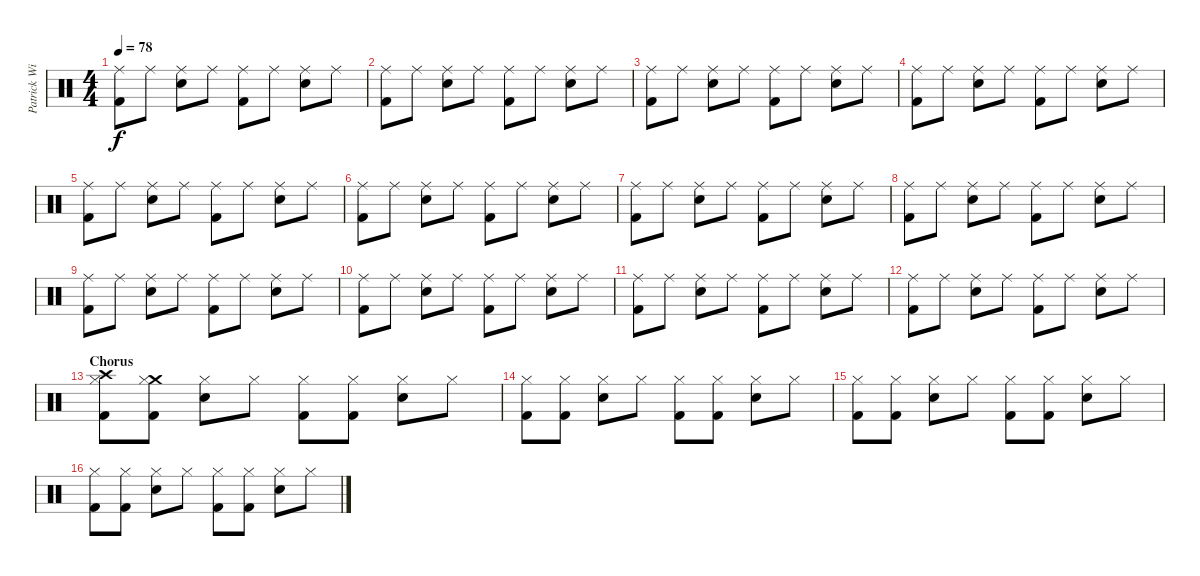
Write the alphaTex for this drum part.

\track ("Patrick Wilson" "Patrick Wi") {instrument percussion}
\staff {score}
\articulation defaults
\ts (4 4)
\tempo 78
\clef neutral
\ks c
("Ride (middle)" "Kick (hit) 2").8{dy f} "Ride (middle)".8 ("Ride (middle)" "Snare (hit) 2").8 "Ride (middle)".8 ("Ride (middle)" "Kick (hit) 2").8 "Ride (middle)".8 ("Ride (middle)" "Snare (hit) 2").8 "Ride (middle)".8 |
("Ride (middle)" "Kick (hit) 2").8 "Ride (middle)".8 ("Ride (middle)" "Snare (hit) 2").8 "Ride (middle)".8 ("Ride (middle)" "Kick (hit) 2").8 "Ride (middle)".8 ("Ride (middle)" "Snare (hit) 2").8 "Ride (middle)".8 |
("Ride (middle)" "Kick (hit) 2").8 "Ride (middle)".8 ("Ride (middle)" "Snare (hit) 2").8 "Ride (middle)".8 ("Ride (middle)" "Kick (hit) 2").8 "Ride (middle)".8 ("Ride (middle)" "Snare (hit) 2").8 "Ride (middle)".8 |
("Ride (middle)" "Kick (hit) 2").8 "Ride (middle)".8 ("Ride (middle)" "Snare (hit) 2").8 "Ride (middle)".8 ("Ride (middle)" "Kick (hit) 2").8 "Ride (middle)".8 ("Ride (middle)" "Snare (hit) 2").8 "Ride (middle)".8 |
("Ride (middle)" "Kick (hit) 2").8 "Ride (middle)".8 ("Ride (middle)" "Snare (hit) 2").8 "Ride (middle)".8 ("Ride (middle)" "Kick (hit) 2").8 "Ride (middle)".8 ("Ride (middle)" "Snare (hit) 2").8 "Ride (middle)".8 |
("Ride (middle)" "Kick (hit) 2").8 "Ride (middle)".8 ("Ride (middle)" "Snare (hit) 2").8 "Ride (middle)".8 ("Ride (middle)" "Kick (hit) 2").8 "Ride (middle)".8 ("Ride (middle)" "Snare (hit) 2").8 "Ride (middle)".8 |
("Ride (middle)" "Kick (hit) 2").8 "Ride (middle)".8 ("Ride (middle)" "Snare (hit) 2").8 "Ride (middle)".8 ("Ride (middle)" "Kick (hit) 2").8 "Ride (middle)".8 ("Ride (middle)" "Snare (hit) 2").8 "Ride (middle)".8 |
("Ride (middle)" "Kick (hit) 2").8 "Ride (middle)".8 ("Ride (middle)" "Snare (hit) 2").8 "Ride (middle)".8 ("Ride (middle)" "Kick (hit) 2").8 "Ride (middle)".8 ("Ride (middle)" "Snare (hit) 2").8 "Ride (middle)".8 |
("Ride (middle)" "Kick (hit) 2").8 "Ride (middle)".8 ("Ride (middle)" "Snare (hit) 2").8 "Ride (middle)".8 ("Ride (middle)" "Kick (hit) 2").8 "Ride (middle)".8 ("Ride (middle)" "Snare (hit) 2").8 "Ride (middle)".8 |
("Ride (middle)" "Kick (hit) 2").8 "Ride (middle)".8 ("Ride (middle)" "Snare (hit) 2").8 "Ride (middle)".8 ("Ride (middle)" "Kick (hit) 2").8 "Ride (middle)".8 ("Ride (middle)" "Snare (hit) 2").8 "Ride (middle)".8 |
("Ride (middle)" "Kick (hit) 2").8 "Ride (middle)".8 ("Ride (middle)" "Snare (hit) 2").8 "Ride (middle)".8 ("Ride (middle)" "Kick (hit) 2").8 "Ride (middle)".8 ("Ride (middle)" "Snare (hit) 2").8 "Ride (middle)".8 |
("Ride (middle)" "Kick (hit) 2").8 "Ride (middle)".8 ("Ride (middle)" "Snare (hit) 2").8 "Ride (middle)".8 ("Ride (middle)" "Kick (hit) 2").8 "Ride (middle)".8 ("Ride (middle)" "Snare (hit) 2").8 "Ride (middle)".8 |
\section ("" "Chorus")
("Crash high (hit)" "Kick (hit) 2" "Hi-Hat (closed)").8 ("Crash medium (hit)" "Kick (hit) 2" "Hi-Hat (closed)").8 ("Snare (hit) 2" "Hi-Hat (closed)").8 "Hi-Hat (closed)".8 ("Kick (hit) 2" "Hi-Hat (closed)").8 ("Kick (hit) 2" "Hi-Hat (closed)").8 ("Snare (hit) 2" "Hi-Hat (closed)").8 "Hi-Hat (closed)".8 |
("Kick (hit) 2" "Hi-Hat (closed)").8 ("Kick (hit) 2" "Hi-Hat (closed)").8 ("Snare (hit) 2" "Hi-Hat (closed)").8 "Hi-Hat (closed)".8 ("Kick (hit) 2" "Hi-Hat (closed)").8 ("Kick (hit) 2" "Hi-Hat (closed)").8 ("Snare (hit) 2" "Hi-Hat (closed)").8 "Hi-Hat (closed)".8 |
("Kick (hit) 2" "Hi-Hat (closed)").8 ("Kick (hit) 2" "Hi-Hat (closed)").8 ("Snare (hit) 2" "Hi-Hat (closed)").8 "Hi-Hat (closed)".8 ("Kick (hit) 2" "Hi-Hat (closed)").8 ("Kick (hit) 2" "Hi-Hat (closed)").8 ("Snare (hit) 2" "Hi-Hat (closed)").8 "Hi-Hat (closed)".8 |
("Kick (hit) 2" "Hi-Hat (closed)").8 ("Kick (hit) 2" "Hi-Hat (closed)").8 ("Snare (hit) 2" "Hi-Hat (closed)").8 "Hi-Hat (closed)".8 ("Kick (hit) 2" "Hi-Hat (closed)").8 ("Kick (hit) 2" "Hi-Hat (closed)").8 ("Snare (hit) 2" "Hi-Hat (closed)").8 "Hi-Hat (closed)".8
